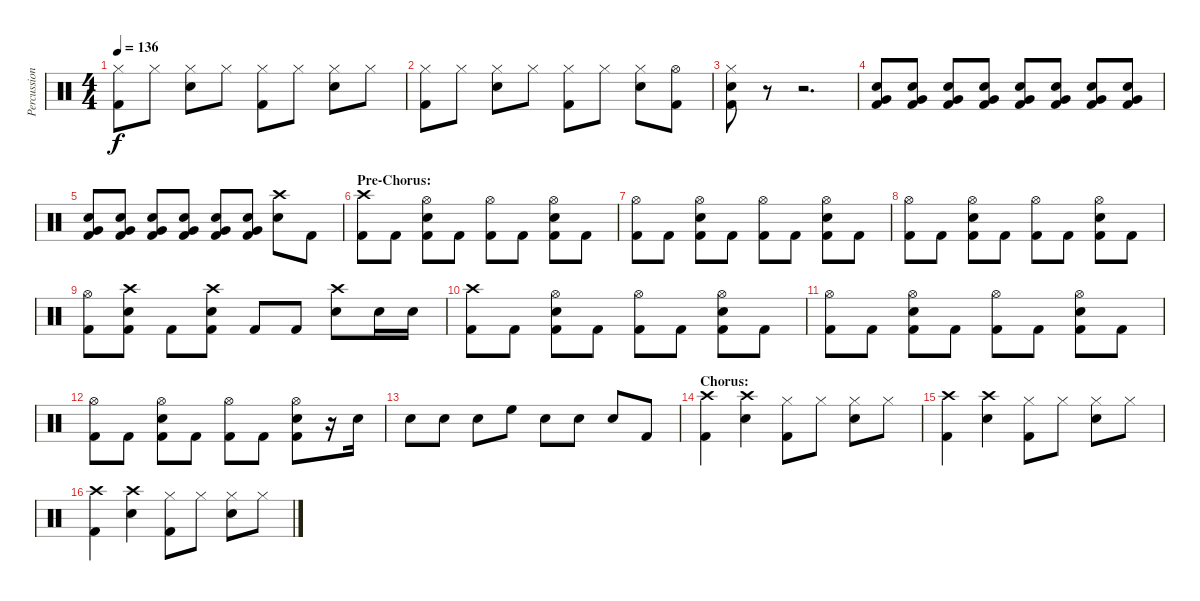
\track ("Percussion" "Percussion") {instrument percussion}
\staff {score}
\articulation defaults
\ts (4 4)
\tempo 136
\clef neutral
\ks c
("Hi-Hat (closed)" "Kick (hit) 2").8{dy f} "Hi-Hat (closed)".8 ("Hi-Hat (closed)" "Electric Snare (hit)").8 "Hi-Hat (closed)".8 ("Hi-Hat (closed)" "Kick (hit) 2").8 "Hi-Hat (closed)".8 ("Hi-Hat (closed)" "Electric Snare (hit)").8 "Hi-Hat (closed)".8 |
("Hi-Hat (closed)" "Kick (hit) 2").8 "Hi-Hat (closed)".8 ("Hi-Hat (closed)" "Electric Snare (hit)").8 "Hi-Hat (closed)".8 ("Hi-Hat (closed)" "Kick (hit) 2").8 "Hi-Hat (closed)".8 ("Hi-Hat (closed)" "Electric Snare (hit)").8 ("Hi-Hat (open)" "Kick (hit) 2").8 |
("Hi-Hat (closed)" "Electric Snare (hit)" "Kick (hit) 2").8 r.8 r.2{d} |
("Very Low Tom (hit)" "Electric Snare (hit)" "Kick (hit) 2").8 ("Very Low Tom (hit)" "Electric Snare (hit)" "Kick (hit) 2").8 ("Very Low Tom (hit)" "Electric Snare (hit)" "Kick (hit) 2").8 ("Very Low Tom (hit)" "Electric Snare (hit)" "Kick (hit) 2").8 ("Very Low Tom (hit)" "Electric Snare (hit)" "Kick (hit) 2").8 ("Very Low Tom (hit)" "Electric Snare (hit)" "Kick (hit) 2").8 ("Very Low Tom (hit)" "Electric Snare (hit)" "Kick (hit) 2").8 ("Very Low Tom (hit)" "Electric Snare (hit)" "Kick (hit) 2").8 |
("Very Low Tom (hit)" "Electric Snare (hit)" "Kick (hit) 2").8 ("Very Low Tom (hit)" "Electric Snare (hit)" "Kick (hit) 2").8 ("Very Low Tom (hit)" "Electric Snare (hit)" "Kick (hit) 2").8 ("Very Low Tom (hit)" "Electric Snare (hit)" "Kick (hit) 2").8 ("Very Low Tom (hit)" "Electric Snare (hit)" "Kick (hit) 2").8 ("Very Low Tom (hit)" "Electric Snare (hit)" "Kick (hit) 2").8 ("Crash high (hit)" "Electric Snare (hit)").8 "Kick (hit) 2".8 |
\section ("" "Pre-Chorus:")
("Crash high (hit)" "Kick (hit) 2").8 "Kick (hit) 2".8 ("Hi-Hat (open)" "Electric Snare (hit)" "Kick (hit) 2").8 "Kick (hit) 2".8 ("Hi-Hat (open)" "Kick (hit) 2").8 "Kick (hit) 2".8 ("Hi-Hat (open)" "Electric Snare (hit)" "Kick (hit) 2").8 "Kick (hit) 2".8 |
("Hi-Hat (open)" "Kick (hit) 2").8 "Kick (hit) 2".8 ("Hi-Hat (open)" "Electric Snare (hit)" "Kick (hit) 2").8 "Kick (hit) 2".8 ("Hi-Hat (open)" "Kick (hit) 2").8 "Kick (hit) 2".8 ("Hi-Hat (open)" "Electric Snare (hit)" "Kick (hit) 2").8 "Kick (hit) 2".8 |
("Hi-Hat (open)" "Kick (hit) 2").8 "Kick (hit) 2".8 ("Hi-Hat (open)" "Electric Snare (hit)" "Kick (hit) 2").8 "Kick (hit) 2".8 ("Hi-Hat (open)" "Kick (hit) 2").8 "Kick (hit) 2".8 ("Hi-Hat (open)" "Electric Snare (hit)" "Kick (hit) 2").8 "Kick (hit) 2".8 |
("Hi-Hat (open)" "Kick (hit) 2").8 ("Crash high (hit)" "Electric Snare (hit)" "Kick (hit) 2").8 "Kick (hit) 2".8 ("Crash high (hit)" "Electric Snare (hit)" "Kick (hit) 2").8 "Kick (hit) 2".8 "Kick (hit) 2".8 ("Crash high (hit)" "Electric Snare (hit)").8 "Electric Snare (hit)".16 "Electric Snare (hit)".16 |
("Crash high (hit)" "Kick (hit) 2").8 "Kick (hit) 2".8 ("Hi-Hat (open)" "Electric Snare (hit)" "Kick (hit) 2").8 "Kick (hit) 2".8 ("Hi-Hat (open)" "Kick (hit) 2").8 "Kick (hit) 2".8 ("Hi-Hat (open)" "Electric Snare (hit)" "Kick (hit) 2").8 "Kick (hit) 2".8 |
("Hi-Hat (open)" "Kick (hit) 2").8 "Kick (hit) 2".8 ("Hi-Hat (open)" "Electric Snare (hit)" "Kick (hit) 2").8 "Kick (hit) 2".8 ("Hi-Hat (open)" "Kick (hit) 2").8 "Kick (hit) 2".8 ("Hi-Hat (open)" "Electric Snare (hit)" "Kick (hit) 2").8 "Kick (hit) 2".8 |
("Hi-Hat (open)" "Kick (hit) 2").8 "Kick (hit) 2".8 ("Hi-Hat (open)" "Electric Snare (hit)" "Kick (hit) 2").8 "Kick (hit) 2".8 ("Hi-Hat (open)" "Kick (hit) 2").8 "Kick (hit) 2".8 ("Hi-Hat (open)" "Electric Snare (hit)" "Kick (hit) 2").8 r.16 "Electric Snare (hit)".16 |
"Electric Snare (hit)".8 "Electric Snare (hit)".8 "Electric Snare (hit)".8 "High Floor Tom (hit)".8 "Electric Snare (hit)".8 "Electric Snare (hit)".8 "Electric Snare (hit)".8 "Kick (hit) 2".8 |
\section ("" "Chorus:")
("Crash high (hit)" "Kick (hit) 2").4 ("Crash high (hit)" "Electric Snare (hit)").4 ("Hi-Hat (closed)" "Kick (hit) 2").8 "Hi-Hat (closed)".8 ("Hi-Hat (closed)" "Electric Snare (hit)").8 "Hi-Hat (closed)".8 |
("Crash high (hit)" "Kick (hit) 2").4 ("Crash high (hit)" "Electric Snare (hit)").4 ("Hi-Hat (closed)" "Kick (hit) 2").8 "Hi-Hat (closed)".8 ("Hi-Hat (closed)" "Electric Snare (hit)").8 "Hi-Hat (closed)".8 |
("Crash high (hit)" "Kick (hit) 2").4 ("Crash high (hit)" "Electric Snare (hit)").4 ("Hi-Hat (closed)" "Kick (hit) 2").8 "Hi-Hat (closed)".8 ("Hi-Hat (closed)" "Electric Snare (hit)").8 "Hi-Hat (closed)".8
